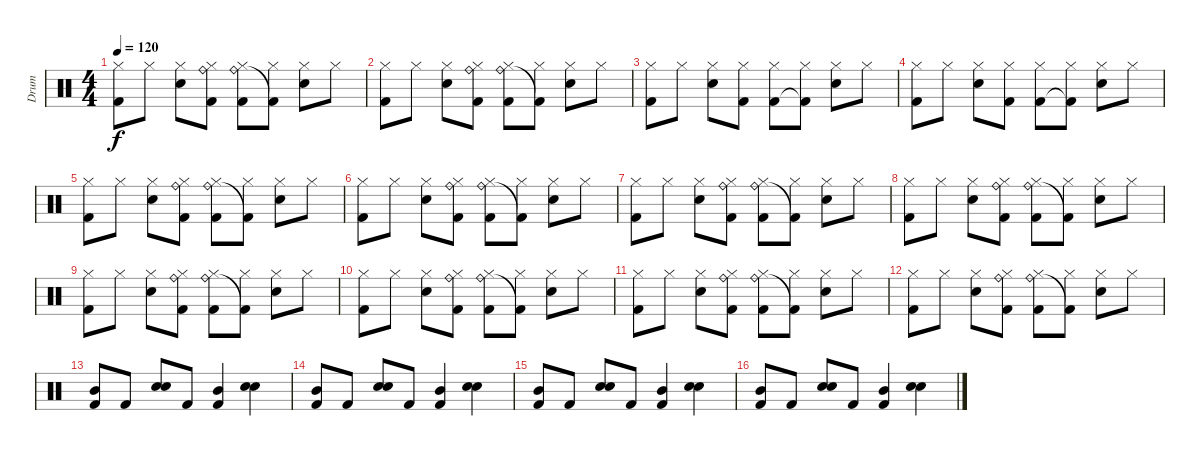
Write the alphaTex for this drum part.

\track ("Drum" "Drum") {instrument percussion}
\staff {score}
\articulation defaults
\ts (4 4)
\tempo 120
\clef neutral
\ks c
("Hi-Hat (closed)" "Kick (hit) 2").8{dy f} "Hi-Hat (closed)".8 ("Hi-Hat (closed)" "Snare (hit) 2").8 ("Hi-Hat (closed)" "Ride (bell)" "Kick (hit) 2").8 ("Hi-Hat (closed)" "Ride (bell)" "Kick (hit) 2").8 ("Hi-Hat (closed)" "Kick (hit) 2"{t}).8 ("Hi-Hat (closed)" "Snare (hit) 2").8 "Hi-Hat (closed)".8 |
("Hi-Hat (closed)" "Kick (hit) 2").8 "Hi-Hat (closed)".8 ("Hi-Hat (closed)" "Snare (hit) 2").8 ("Hi-Hat (closed)" "Ride (bell)" "Kick (hit) 2").8 ("Hi-Hat (closed)" "Ride (bell)" "Kick (hit) 2").8 ("Hi-Hat (closed)" "Kick (hit) 2"{t}).8 ("Hi-Hat (closed)" "Snare (hit) 2").8 "Hi-Hat (closed)".8 |
("Hi-Hat (closed)" "Kick (hit) 2").8 "Hi-Hat (closed)".8 ("Hi-Hat (closed)" "Snare (hit) 2").8 ("Hi-Hat (closed)" "Kick (hit) 2").8 ("Hi-Hat (closed)" "Kick (hit) 2").8 ("Hi-Hat (closed)" "Kick (hit) 2"{t}).8 ("Hi-Hat (closed)" "Snare (hit) 2").8 "Hi-Hat (closed)".8 |
("Hi-Hat (closed)" "Kick (hit) 2").8 "Hi-Hat (closed)".8 ("Hi-Hat (closed)" "Snare (hit) 2").8 ("Hi-Hat (closed)" "Kick (hit) 2").8 ("Hi-Hat (closed)" "Kick (hit) 2").8 ("Hi-Hat (closed)" "Kick (hit) 2"{t}).8 ("Hi-Hat (closed)" "Snare (hit) 2").8 "Hi-Hat (closed)".8 |
("Hi-Hat (closed)" "Kick (hit) 2").8 "Hi-Hat (closed)".8 ("Hi-Hat (closed)" "Snare (hit) 2").8 ("Hi-Hat (closed)" "Ride (bell)" "Kick (hit) 2").8 ("Hi-Hat (closed)" "Ride (bell)" "Kick (hit) 2").8 ("Hi-Hat (closed)" "Kick (hit) 2"{t}).8 ("Hi-Hat (closed)" "Snare (hit) 2").8 "Hi-Hat (closed)".8 |
("Hi-Hat (closed)" "Kick (hit) 2").8 "Hi-Hat (closed)".8 ("Hi-Hat (closed)" "Snare (hit) 2").8 ("Hi-Hat (closed)" "Ride (bell)" "Kick (hit) 2").8 ("Hi-Hat (closed)" "Ride (bell)" "Kick (hit) 2").8 ("Hi-Hat (closed)" "Kick (hit) 2"{t}).8 ("Hi-Hat (closed)" "Snare (hit) 2").8 "Hi-Hat (closed)".8 |
("Hi-Hat (closed)" "Kick (hit) 2").8 "Hi-Hat (closed)".8 ("Hi-Hat (closed)" "Snare (hit) 2").8 ("Hi-Hat (closed)" "Ride (bell)" "Kick (hit) 2").8 ("Hi-Hat (closed)" "Ride (bell)" "Kick (hit) 2").8 ("Hi-Hat (closed)" "Kick (hit) 2"{t}).8 ("Hi-Hat (closed)" "Snare (hit) 2").8 "Hi-Hat (closed)".8 |
("Hi-Hat (closed)" "Kick (hit) 2").8 "Hi-Hat (closed)".8 ("Hi-Hat (closed)" "Snare (hit) 2").8 ("Hi-Hat (closed)" "Ride (bell)" "Kick (hit) 2").8 ("Hi-Hat (closed)" "Ride (bell)" "Kick (hit) 2").8 ("Hi-Hat (closed)" "Kick (hit) 2"{t}).8 ("Hi-Hat (closed)" "Snare (hit) 2").8 "Hi-Hat (closed)".8 |
("Hi-Hat (closed)" "Kick (hit) 2").8 "Hi-Hat (closed)".8 ("Hi-Hat (closed)" "Snare (hit) 2").8 ("Hi-Hat (closed)" "Ride (bell)" "Kick (hit) 2").8 ("Hi-Hat (closed)" "Ride (bell)" "Kick (hit) 2").8 ("Hi-Hat (closed)" "Kick (hit) 2"{t}).8 ("Hi-Hat (closed)" "Snare (hit) 2").8 "Hi-Hat (closed)".8 |
("Hi-Hat (closed)" "Kick (hit) 2").8 "Hi-Hat (closed)".8 ("Hi-Hat (closed)" "Snare (hit) 2").8 ("Hi-Hat (closed)" "Ride (bell)" "Kick (hit) 2").8 ("Hi-Hat (closed)" "Ride (bell)" "Kick (hit) 2").8 ("Hi-Hat (closed)" "Kick (hit) 2"{t}).8 ("Hi-Hat (closed)" "Snare (hit) 2").8 "Hi-Hat (closed)".8 |
("Hi-Hat (closed)" "Kick (hit) 2").8 "Hi-Hat (closed)".8 ("Hi-Hat (closed)" "Snare (hit) 2").8 ("Hi-Hat (closed)" "Ride (bell)" "Kick (hit) 2").8 ("Hi-Hat (closed)" "Ride (bell)" "Kick (hit) 2").8 ("Hi-Hat (closed)" "Kick (hit) 2"{t}).8 ("Hi-Hat (closed)" "Snare (hit) 2").8 "Hi-Hat (closed)".8 |
("Hi-Hat (closed)" "Kick (hit) 2").8 "Hi-Hat (closed)".8 ("Hi-Hat (closed)" "Snare (hit) 2").8 ("Hi-Hat (closed)" "Ride (bell)" "Kick (hit) 2").8 ("Hi-Hat (closed)" "Ride (bell)" "Kick (hit) 2").8 ("Hi-Hat (closed)" "Kick (hit) 2"{t}).8 ("Hi-Hat (closed)" "Snare (hit) 2").8 "Hi-Hat (closed)".8 |
("Mid Tom (hit)" "Kick (hit) 2").8 "Kick (hit) 2".8 ("Snare (hit) 2" "Snare (hit) 2").8 "Kick (hit) 2".8 ("Mid Tom (hit)" "Kick (hit) 2").4 ("Snare (hit) 2" "Snare (hit) 2").4 |
("Mid Tom (hit)" "Kick (hit) 2").8 "Kick (hit) 2".8 ("Snare (hit) 2" "Snare (hit) 2").8 "Kick (hit) 2".8 ("Mid Tom (hit)" "Kick (hit) 2").4 ("Snare (hit) 2" "Snare (hit) 2").4 |
("Mid Tom (hit)" "Kick (hit) 2").8 "Kick (hit) 2".8 ("Snare (hit) 2" "Snare (hit) 2").8 "Kick (hit) 2".8 ("Mid Tom (hit)" "Kick (hit) 2").4 ("Snare (hit) 2" "Snare (hit) 2").4 |
("Mid Tom (hit)" "Kick (hit) 2").8 "Kick (hit) 2".8 ("Snare (hit) 2" "Snare (hit) 2").8 "Kick (hit) 2".8 ("Mid Tom (hit)" "Kick (hit) 2").4 ("Snare (hit) 2" "Snare (hit) 2").4
